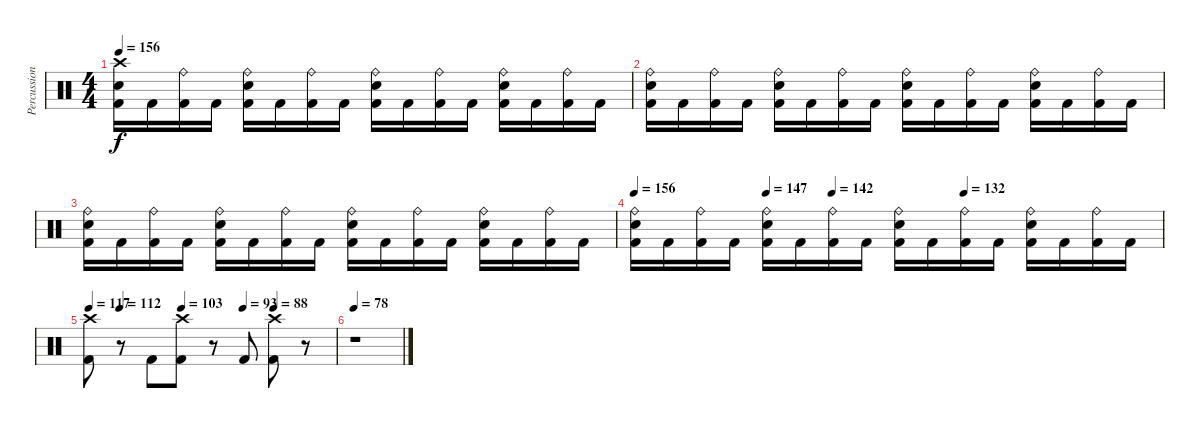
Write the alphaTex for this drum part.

\track ("Percussion" "Percussion") {instrument percussion}
\staff {score}
\articulation defaults
\ts (4 4)
\tempo 156
\clef neutral
\ks c
("Crash high (hit)" "Snare (hit) 2" "Kick (hit) 2").16{dy f} "Kick (hit) 2".16 ("Ride (bell)" "Kick (hit) 2").16 "Kick (hit) 2".16 ("Ride (bell)" "Snare (hit) 2" "Kick (hit) 2").16 "Kick (hit) 2".16 ("Ride (bell)" "Kick (hit) 2").16 "Kick (hit) 2".16 ("Ride (bell)" "Snare (hit) 2" "Kick (hit) 2").16 "Kick (hit) 2".16 ("Ride (bell)" "Kick (hit) 2").16 "Kick (hit) 2".16 ("Ride (bell)" "Snare (hit) 2" "Kick (hit) 2").16 "Kick (hit) 2".16 ("Ride (bell)" "Kick (hit) 2").16 "Kick (hit) 2".16 |
("Ride (bell)" "Snare (hit) 2" "Kick (hit) 2").16 "Kick (hit) 2".16 ("Ride (bell)" "Kick (hit) 2").16 "Kick (hit) 2".16 ("Ride (bell)" "Snare (hit) 2" "Kick (hit) 2").16 "Kick (hit) 2".16 ("Ride (bell)" "Kick (hit) 2").16 "Kick (hit) 2".16 ("Ride (bell)" "Snare (hit) 2" "Kick (hit) 2").16 "Kick (hit) 2".16 ("Ride (bell)" "Kick (hit) 2").16 "Kick (hit) 2".16 ("Ride (bell)" "Snare (hit) 2" "Kick (hit) 2").16 "Kick (hit) 2".16 ("Ride (bell)" "Kick (hit) 2").16 "Kick (hit) 2".16 |
("Ride (bell)" "Snare (hit) 2" "Kick (hit) 2").16 "Kick (hit) 2".16 ("Ride (bell)" "Kick (hit) 2").16 "Kick (hit) 2".16 ("Ride (bell)" "Snare (hit) 2" "Kick (hit) 2").16 "Kick (hit) 2".16 ("Ride (bell)" "Kick (hit) 2").16 "Kick (hit) 2".16 ("Ride (bell)" "Snare (hit) 2" "Kick (hit) 2").16 "Kick (hit) 2".16 ("Ride (bell)" "Kick (hit) 2").16 "Kick (hit) 2".16 ("Ride (bell)" "Snare (hit) 2" "Kick (hit) 2").16 "Kick (hit) 2".16 ("Ride (bell)" "Kick (hit) 2").16 "Kick (hit) 2".16 |
\tempo 156
\tempo (147 0.25)
\tempo (142 0.375)
\tempo (132 0.625)
("Ride (bell)" "Snare (hit) 2" "Kick (hit) 2").16 "Kick (hit) 2".16 ("Ride (bell)" "Kick (hit) 2").16 "Kick (hit) 2".16 ("Ride (bell)" "Snare (hit) 2" "Kick (hit) 2").16 "Kick (hit) 2".16 ("Ride (bell)" "Kick (hit) 2").16 "Kick (hit) 2".16 ("Ride (bell)" "Snare (hit) 2" "Kick (hit) 2").16 "Kick (hit) 2".16 ("Ride (bell)" "Kick (hit) 2").16 "Kick (hit) 2".16 ("Ride (bell)" "Snare (hit) 2" "Kick (hit) 2").16 "Kick (hit) 2".16 ("Ride (bell)" "Kick (hit) 2").16 "Kick (hit) 2".16 |
\tempo 117
\tempo (112 0.125)
\tempo (103 0.375)
\tempo (93 0.625)
\tempo (88 0.75)
("Crash high (hit)" "Kick (hit) 2").8 r.8 "Kick (hit) 2".8 ("Crash high (hit)" "Kick (hit) 2").8 r.8 "Kick (hit) 2".8 ("Crash high (hit)" "Kick (hit) 2").8 r.8 |
\tempo 78
r.1
